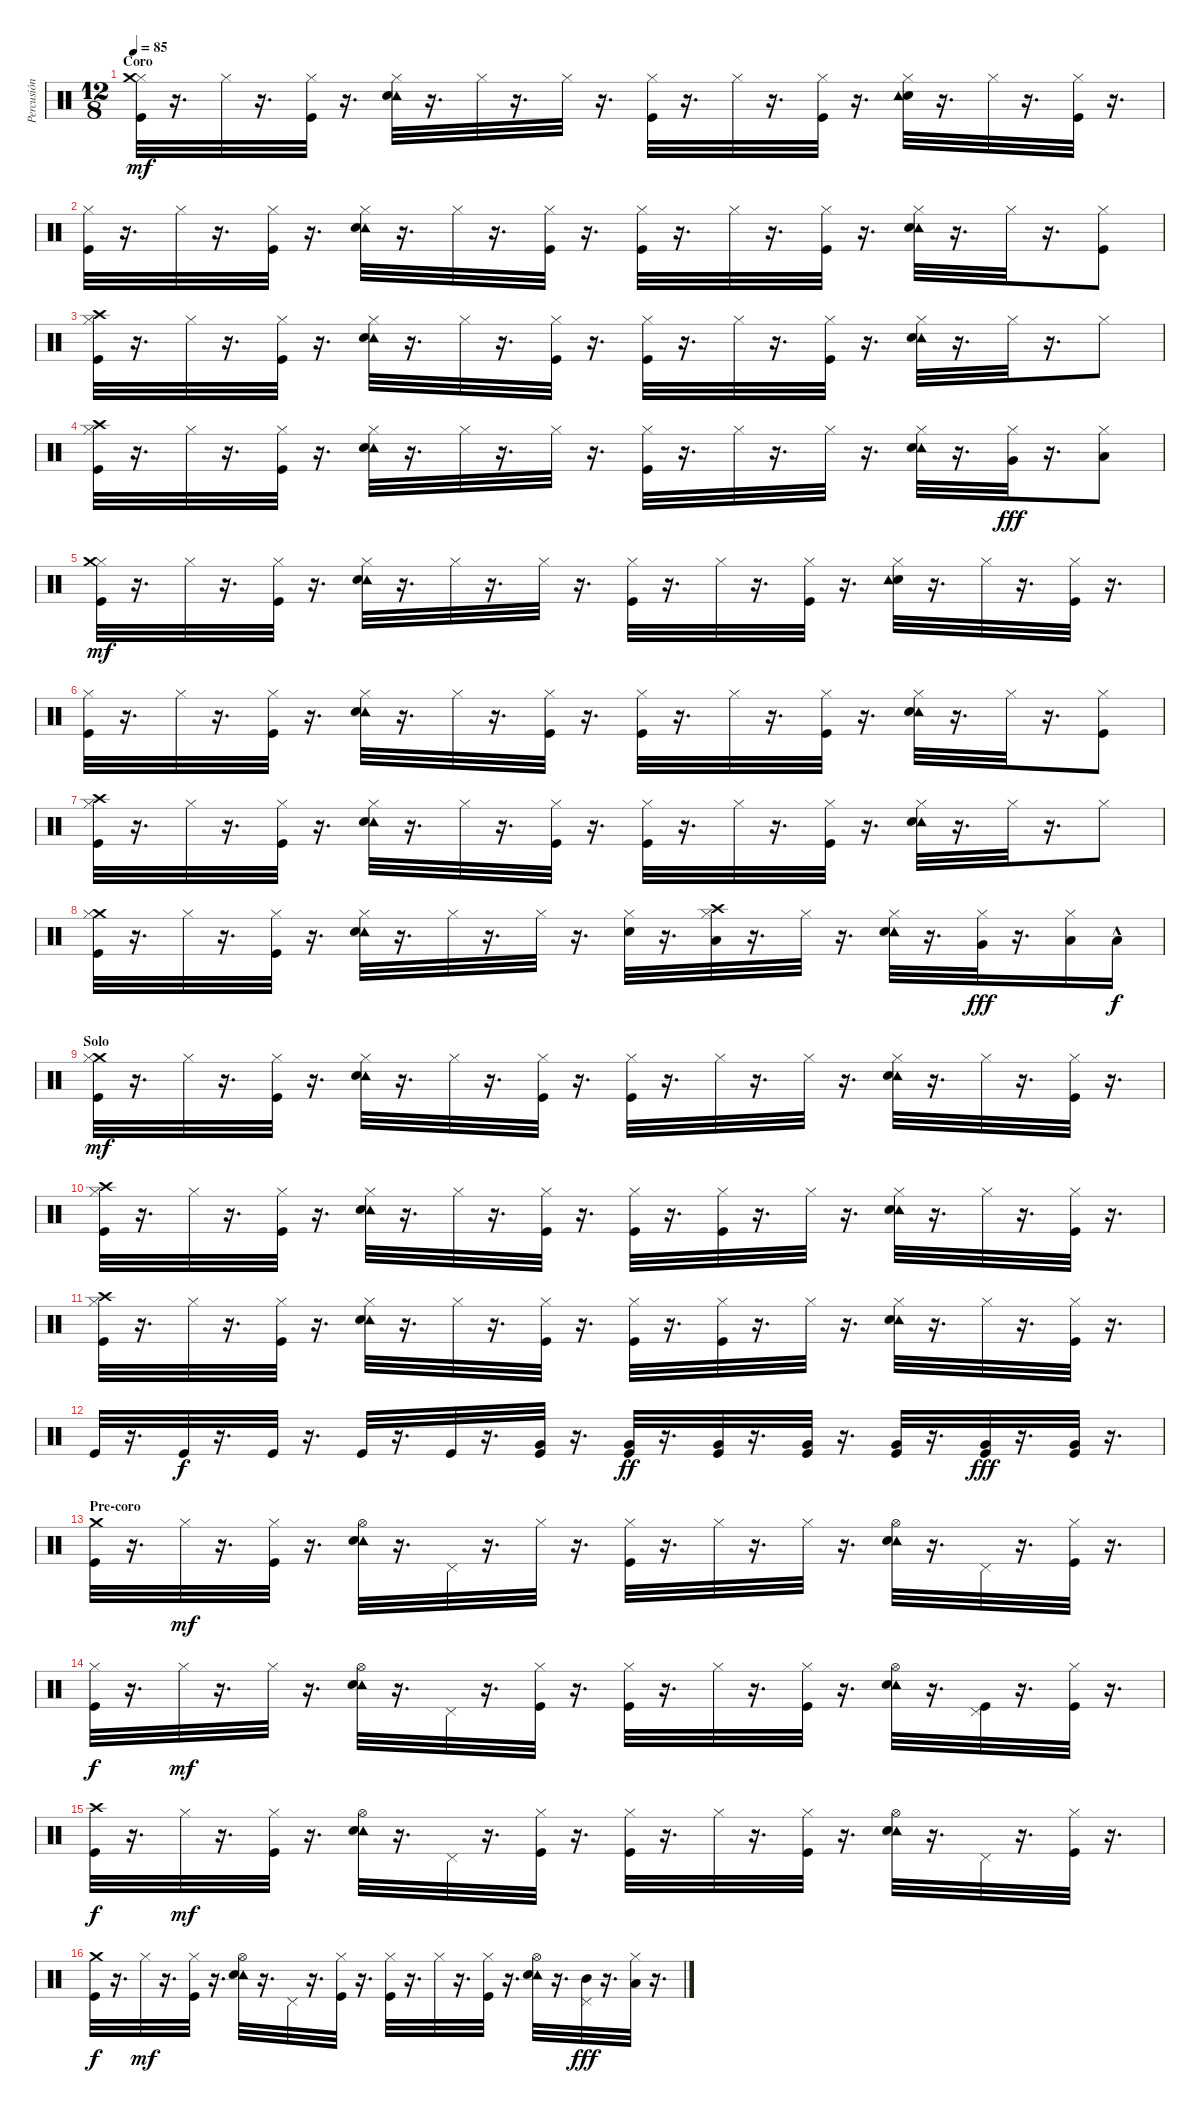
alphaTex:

\track ("Percusión" "Percusión") {instrument percussion}
\staff {score}
\articulation defaults
\ts (12 8)
\section ("" "Coro")
\tempo 85
\clef neutral
\ks c
("Hi-Hat (closed)" "Crash medium (hit)" "Kick (hit)").32{dy mf} r.16{d} "Hi-Hat (closed)".32 r.16{d} ("Hi-Hat (closed)" "Kick (hit)").32 r.16{d} ("Hi-Hat (closed)" "Tambourine (hit)" "Snare (hit) 2").32 r.16{d} "Hi-Hat (closed)".32 r.16{d} "Hi-Hat (closed)".32 r.16{d} ("Hi-Hat (closed)" "Kick (hit)").32 r.16{d} "Hi-Hat (closed)".32 r.16{d} ("Hi-Hat (closed)" "Kick (hit)").32 r.16{d} ("Snare (hit) 2" "Hi-Hat (closed)" "Tambourine (hit)").32 r.16{d} "Hi-Hat (closed)".32 r.16{d} ("Kick (hit)" "Hi-Hat (closed)").32 r.16{d} |
("Kick (hit)" "Hi-Hat (closed)").32 r.16{d} "Hi-Hat (closed)".32 r.16{d} ("Kick (hit)" "Hi-Hat (closed)").32 r.16{d} ("Tambourine (hit)" "Snare (hit) 2" "Hi-Hat (closed)").32 r.16{d} "Hi-Hat (closed)".32 r.16{d} ("Kick (hit)" "Hi-Hat (closed)").32 r.16{d} ("Kick (hit)" "Hi-Hat (closed)").32 r.16{d} "Hi-Hat (closed)".32 r.16{d} ("Kick (hit)" "Hi-Hat (closed)").32 r.16{d} ("Tambourine (hit)" "Snare (hit) 2" "Hi-Hat (closed)").32 r.16{d} "Hi-Hat (closed)".32 r.16{d} ("Kick (hit)" "Hi-Hat (closed)").8 |
("Kick (hit)" "Crash high (hit)" "Hi-Hat (closed)").32 r.16{d} "Hi-Hat (closed)".32 r.16{d} ("Kick (hit)" "Hi-Hat (closed)").32 r.16{d} ("Tambourine (hit)" "Snare (hit) 2" "Hi-Hat (closed)").32 r.16{d} "Hi-Hat (closed)".32 r.16{d} ("Kick (hit)" "Hi-Hat (closed)").32 r.16{d} ("Kick (hit)" "Hi-Hat (closed)").32 r.16{d} "Hi-Hat (closed)".32 r.16{d} ("Kick (hit)" "Hi-Hat (closed)").32 r.16{d} ("Tambourine (hit)" "Snare (hit) 2" "Hi-Hat (closed)").32 r.16{d} "Hi-Hat (closed)".32 r.16{d} "Hi-Hat (closed)".8 |
("Crash high (hit)" "Kick (hit)" "Hi-Hat (closed)").32 r.16{d} "Hi-Hat (closed)".32 r.16{d} ("Kick (hit)" "Hi-Hat (closed)").32 r.16{d} ("Tambourine (hit)" "Snare (hit) 2" "Hi-Hat (closed)").32 r.16{d} "Hi-Hat (closed)".32 r.16{d} "Hi-Hat (closed)".32 r.16{d} ("Kick (hit)" "Hi-Hat (closed)").32 r.16{d} "Hi-Hat (closed)".32 r.16{d} "Hi-Hat (closed)".32 r.16{d} ("Tambourine (hit)" "Snare (hit) 2" "Hi-Hat (closed)").32 r.16{d} ("Very Low Tom (hit)" "Hi-Hat (closed)").32{dy fff} r.16{d} ("Low Floor Tom (hit)" "Hi-Hat (closed)").8 |
("Hi-Hat (closed)" "Crash medium (hit)" "Kick (hit)").32{dy mf} r.16{d} "Hi-Hat (closed)".32 r.16{d} ("Hi-Hat (closed)" "Kick (hit)").32 r.16{d} ("Hi-Hat (closed)" "Tambourine (hit)" "Snare (hit) 2").32 r.16{d} "Hi-Hat (closed)".32 r.16{d} "Hi-Hat (closed)".32 r.16{d} ("Hi-Hat (closed)" "Kick (hit)").32 r.16{d} "Hi-Hat (closed)".32 r.16{d} ("Hi-Hat (closed)" "Kick (hit)").32 r.16{d} ("Snare (hit) 2" "Hi-Hat (closed)" "Tambourine (hit)").32 r.16{d} "Hi-Hat (closed)".32 r.16{d} ("Kick (hit)" "Hi-Hat (closed)").32 r.16{d} |
("Kick (hit)" "Hi-Hat (closed)").32 r.16{d} "Hi-Hat (closed)".32 r.16{d} ("Kick (hit)" "Hi-Hat (closed)").32 r.16{d} ("Tambourine (hit)" "Snare (hit) 2" "Hi-Hat (closed)").32 r.16{d} "Hi-Hat (closed)".32 r.16{d} ("Kick (hit)" "Hi-Hat (closed)").32 r.16{d} ("Kick (hit)" "Hi-Hat (closed)").32 r.16{d} "Hi-Hat (closed)".32 r.16{d} ("Kick (hit)" "Hi-Hat (closed)").32 r.16{d} ("Tambourine (hit)" "Snare (hit) 2" "Hi-Hat (closed)").32 r.16{d} "Hi-Hat (closed)".32 r.16{d} ("Kick (hit)" "Hi-Hat (closed)").8 |
("Kick (hit)" "Crash high (hit)" "Hi-Hat (closed)").32 r.16{d} "Hi-Hat (closed)".32 r.16{d} ("Kick (hit)" "Hi-Hat (closed)").32 r.16{d} ("Tambourine (hit)" "Snare (hit) 2" "Hi-Hat (closed)").32 r.16{d} "Hi-Hat (closed)".32 r.16{d} ("Kick (hit)" "Hi-Hat (closed)").32 r.16{d} ("Kick (hit)" "Hi-Hat (closed)").32 r.16{d} "Hi-Hat (closed)".32 r.16{d} ("Kick (hit)" "Hi-Hat (closed)").32 r.16{d} ("Tambourine (hit)" "Snare (hit) 2" "Hi-Hat (closed)").32 r.16{d} "Hi-Hat (closed)".32 r.16{d} "Hi-Hat (closed)".8 |
("Crash medium (hit)" "Kick (hit)" "Hi-Hat (closed)").32 r.16{d} "Hi-Hat (closed)".32 r.16{d} ("Kick (hit)" "Hi-Hat (closed)").32 r.16{d} ("Tambourine (hit)" "Snare (hit) 2" "Hi-Hat (closed)").32 r.16{d} "Hi-Hat (closed)".32 r.16{d} "Hi-Hat (closed)".32 r.16{d} ("Snare (hit) 2" "Hi-Hat (closed)").32 r.16{d} ("Crash high (hit)" "Low Floor Tom (hit)" "Hi-Hat (closed)").32 r.16{d} "Hi-Hat (closed)".32 r.16{d} ("Tambourine (hit)" "Snare (hit) 2" "Hi-Hat (closed)").32 r.16{d} ("Very Low Tom (hit)" "Hi-Hat (closed)").32{dy fff} r.16{d} ("Low Floor Tom (hit)" "Hi-Hat (closed)").16 "Low Floor Tom (hit)"{hac}.16{dy f} |
\section ("" "Solo")
("Kick (hit)" "Crash medium (hit)" "Hi-Hat (closed)").32{dy mf} r.16{d} "Hi-Hat (closed)".32 r.16{d} ("Hi-Hat (closed)" "Kick (hit)").32 r.16{d} ("Tambourine (hit)" "Hi-Hat (closed)" "Snare (hit) 2").32 r.16{d} "Hi-Hat (closed)".32 r.16{d} ("Hi-Hat (closed)" "Kick (hit)").32 r.16{d} ("Hi-Hat (closed)" "Kick (hit)").32 r.16{d} "Hi-Hat (closed)".32 r.16{d} "Hi-Hat (closed)".32 r.16{d} ("Tambourine (hit)" "Snare (hit) 2" "Hi-Hat (closed)").32 r.16{d} "Hi-Hat (closed)".32 r.16{d} ("Hi-Hat (closed)" "Kick (hit)").32 r.16{d} |
("Kick (hit)" "Hi-Hat (closed)" "Crash high (hit)").32 r.16{d} "Hi-Hat (closed)".32 r.16{d} ("Kick (hit)" "Hi-Hat (closed)").32 r.16{d} ("Tambourine (hit)" "Snare (hit) 2" "Hi-Hat (closed)").32 r.16{d} "Hi-Hat (closed)".32 r.16{d} ("Kick (hit)" "Hi-Hat (closed)").32 r.16{d} ("Kick (hit)" "Hi-Hat (closed)").32 r.16{d} ("Kick (hit)" "Hi-Hat (closed)").32 r.16{d} "Hi-Hat (closed)".32 r.16{d} ("Tambourine (hit)" "Snare (hit) 2" "Hi-Hat (closed)").32 r.16{d} "Hi-Hat (closed)".32 r.16{d} ("Kick (hit)" "Hi-Hat (closed)").32 r.16{d} |
("Kick (hit)" "Hi-Hat (closed)" "Crash high (hit)").32 r.16{d} "Hi-Hat (closed)".32 r.16{d} ("Kick (hit)" "Hi-Hat (closed)").32 r.16{d} ("Tambourine (hit)" "Snare (hit) 2" "Hi-Hat (closed)").32 r.16{d} "Hi-Hat (closed)".32 r.16{d} ("Kick (hit)" "Hi-Hat (closed)").32 r.16{d} ("Kick (hit)" "Hi-Hat (closed)").32 r.16{d} ("Kick (hit)" "Hi-Hat (closed)").32 r.16{d} "Hi-Hat (closed)".32 r.16{d} ("Tambourine (hit)" "Snare (hit) 2" "Hi-Hat (closed)").32 r.16{d} "Hi-Hat (closed)".32 r.16{d} ("Kick (hit)" "Hi-Hat (closed)").32 r.16{d} |
"Kick (hit)".32 r.16{d} "Kick (hit)".32{dy f} r.16{d} "Kick (hit)".32 r.16{d} "Kick (hit)".32 r.16{d} "Kick (hit)".32 r.16{d} ("Very Low Tom (hit)" "Kick (hit)").32 r.16{d} ("Very Low Tom (hit)" "Kick (hit)").32{dy ff} r.16{d} ("Very Low Tom (hit)" "Kick (hit)").32 r.16{d} ("Very Low Tom (hit)" "Kick (hit)").32 r.16{d} ("Very Low Tom (hit)" "Kick (hit)").32 r.16{d} ("Very Low Tom (hit)" "Kick (hit)").32{dy fff} r.16{d} ("Very Low Tom (hit)" "Kick (hit)").32 r.16{d} |
\section ("" "Pre-coro")
("Kick (hit)" "Crash medium (hit)").32 r.16{d} "Hi-Hat (closed)".32{dy mf} r.16{d} ("Hi-Hat (closed)" "Kick (hit)").32 r.16{d} ("Hi-Hat (open)" "Tambourine (hit)" "Snare (hit) 2").32 r.16{d} "Pedal Hi-Hat (hit)".32 r.16{d} "Hi-Hat (closed)".32 r.16{d} ("Hi-Hat (closed)" "Kick (hit)").32 r.16{d} "Hi-Hat (closed)".32 r.16{d} "Hi-Hat (closed)".32 r.16{d} ("Hi-Hat (open)" "Tambourine (hit)" "Snare (hit) 2").32 r.16{d} "Pedal Hi-Hat (hit)".32 r.16{d} ("Kick (hit)" "Hi-Hat (closed)").32 r.16{d} |
("Hi-Hat (closed)" "Kick (hit)").32{dy f} r.16{d} "Hi-Hat (closed)".32{dy mf} r.16{d} "Hi-Hat (closed)".32 r.16{d} ("Hi-Hat (open)" "Tambourine (hit)" "Snare (hit) 2").32 r.16{d} "Pedal Hi-Hat (hit)".32 r.16{d} ("Kick (hit)" "Hi-Hat (closed)").32 r.16{d} ("Hi-Hat (closed)" "Kick (hit)").32 r.16{d} "Hi-Hat (closed)".32 r.16{d} ("Kick (hit)" "Hi-Hat (closed)").32 r.16{d} ("Hi-Hat (open)" "Tambourine (hit)" "Snare (hit) 2").32 r.16{d} ("Kick (hit)" "Pedal Hi-Hat (hit)").32 r.16{d} ("Kick (hit)" "Hi-Hat (closed)").32 r.16{d} |
("Crash high (hit)" "Kick (hit)").32{dy f} r.16{d} "Hi-Hat (closed)".32{dy mf} r.16{d} ("Hi-Hat (closed)" "Kick (hit)").32 r.16{d} ("Hi-Hat (open)" "Tambourine (hit)" "Snare (hit) 2").32 r.16{d} "Pedal Hi-Hat (hit)".32 r.16{d} ("Kick (hit)" "Hi-Hat (closed)").32 r.16{d} ("Hi-Hat (closed)" "Kick (hit)").32 r.16{d} "Hi-Hat (closed)".32 r.16{d} ("Kick (hit)" "Hi-Hat (closed)").32 r.16{d} ("Hi-Hat (open)" "Tambourine (hit)" "Snare (hit) 2").32 r.16{d} "Pedal Hi-Hat (hit)".32 r.16{d} ("Kick (hit)" "Hi-Hat (closed)").32 r.16{d} |
("Kick (hit)" "Crash medium (hit)").32{dy f} r.16{d} "Hi-Hat (closed)".32{dy mf} r.16{d} ("Hi-Hat (closed)" "Kick (hit)").32 r.16{d} ("Tambourine (hit)" "Hi-Hat (open)" "Snare (hit) 2").32 r.16{d} "Pedal Hi-Hat (hit)".32 r.16{d} ("Kick (hit)" "Hi-Hat (closed)").32 r.16{d} ("Hi-Hat (closed)" "Kick (hit)").32 r.16{d} "Hi-Hat (closed)".32 r.16{d} ("Kick (hit)" "Hi-Hat (closed)").32 r.16{d} ("Tambourine (hit)" "Hi-Hat (open)" "Snare (hit) 2").32 r.16{d} ("Mid Tom (hit)" "Pedal Hi-Hat (hit)").32{dy fff} r.16{d} ("Low Tom (hit)" "Hi-Hat (closed)").32 r.16{d}
